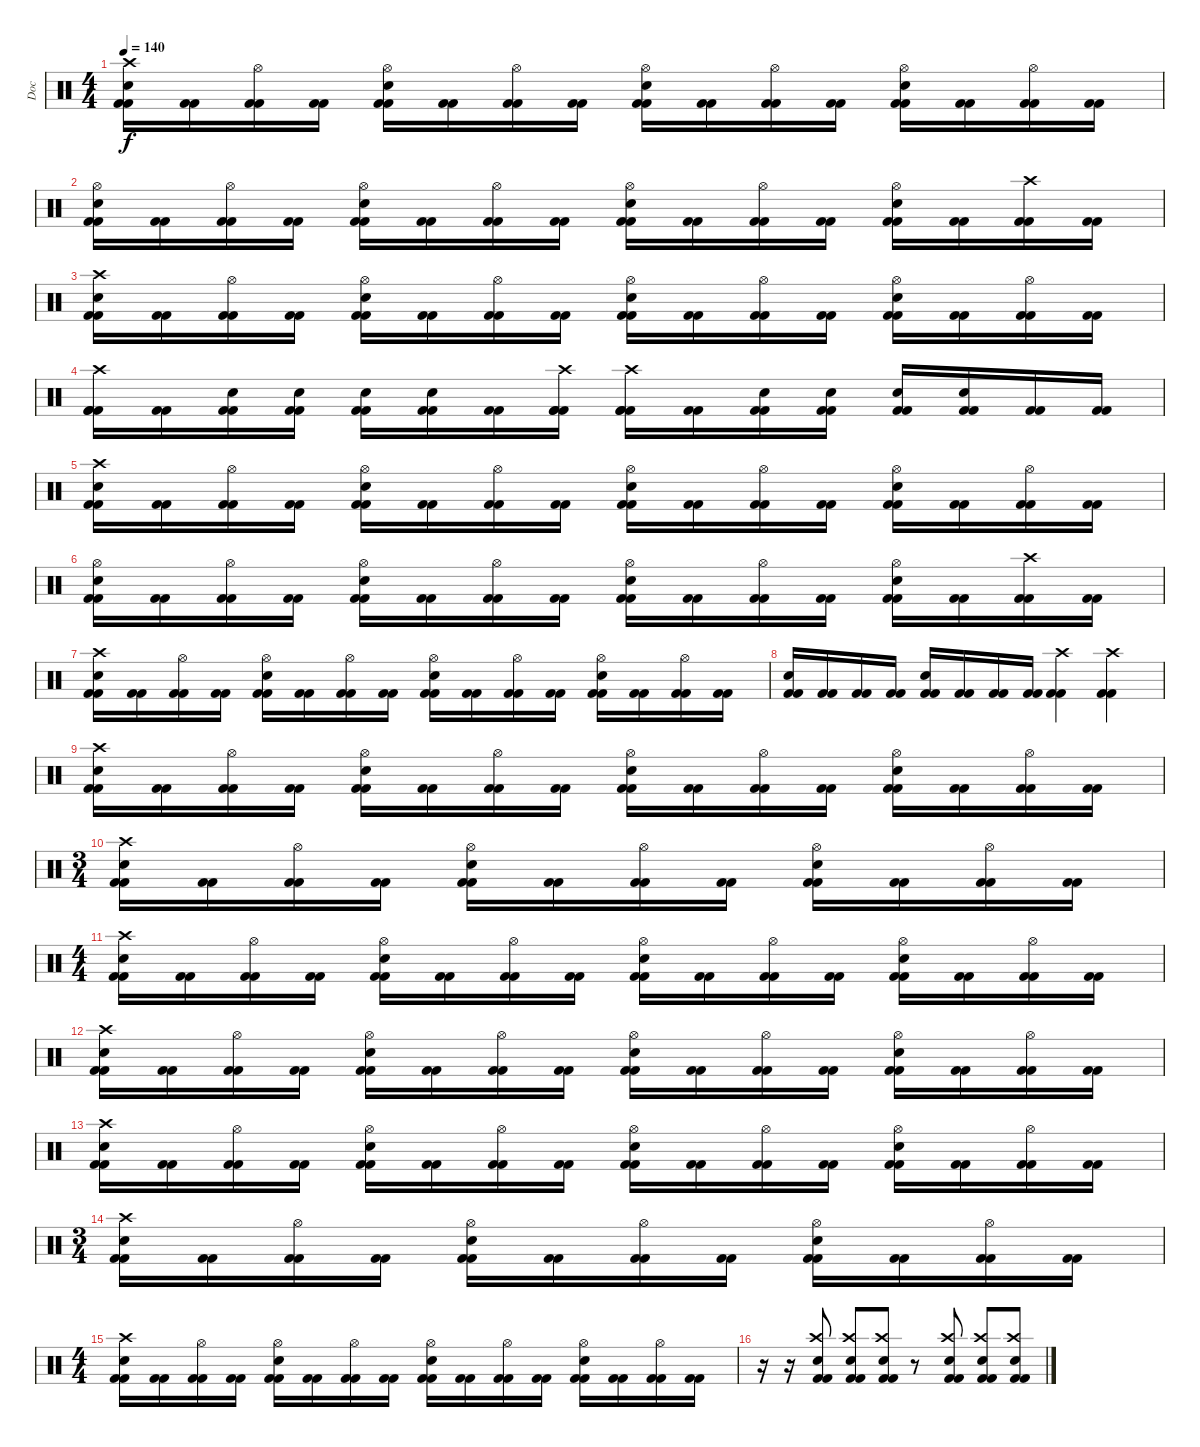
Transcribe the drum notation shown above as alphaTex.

\track ("Doc" "Doc") {instrument percussion}
\staff {score}
\articulation defaults
\ts (4 4)
\tempo 140
\clef neutral
\ks c
("Kick (hit) 2" "Crash high (hit)" "Electric Snare (hit)" "Kick (hit) 2").16{dy f} ("Kick (hit) 2" "Kick (hit) 2").16 ("Kick (hit) 2" "Hi-Hat (open)" "Kick (hit) 2").16 ("Kick (hit) 2" "Kick (hit) 2").16 ("Kick (hit) 2" "Hi-Hat (open)" "Electric Snare (hit)" "Kick (hit) 2").16 ("Kick (hit) 2" "Kick (hit) 2").16 ("Kick (hit) 2" "Hi-Hat (open)" "Kick (hit) 2").16 ("Kick (hit) 2" "Kick (hit) 2").16 ("Kick (hit) 2" "Hi-Hat (open)" "Electric Snare (hit)" "Kick (hit) 2").16 ("Kick (hit) 2" "Kick (hit) 2").16 ("Kick (hit) 2" "Hi-Hat (open)" "Kick (hit) 2").16 ("Kick (hit) 2" "Kick (hit) 2").16 ("Kick (hit) 2" "Hi-Hat (open)" "Electric Snare (hit)" "Kick (hit) 2").16 ("Kick (hit) 2" "Kick (hit) 2").16 ("Kick (hit) 2" "Hi-Hat (open)" "Kick (hit) 2").16 ("Kick (hit) 2" "Kick (hit) 2").16 |
("Kick (hit) 2" "Hi-Hat (open)" "Electric Snare (hit)" "Kick (hit) 2").16 ("Kick (hit) 2" "Kick (hit) 2").16 ("Kick (hit) 2" "Hi-Hat (open)" "Kick (hit) 2").16 ("Kick (hit) 2" "Kick (hit) 2").16 ("Kick (hit) 2" "Hi-Hat (open)" "Electric Snare (hit)" "Kick (hit) 2").16 ("Kick (hit) 2" "Kick (hit) 2").16 ("Kick (hit) 2" "Hi-Hat (open)" "Kick (hit) 2").16 ("Kick (hit) 2" "Kick (hit) 2").16 ("Kick (hit) 2" "Hi-Hat (open)" "Electric Snare (hit)" "Kick (hit) 2").16 ("Kick (hit) 2" "Kick (hit) 2").16 ("Kick (hit) 2" "Hi-Hat (open)" "Kick (hit) 2").16 ("Kick (hit) 2" "Kick (hit) 2").16 ("Kick (hit) 2" "Hi-Hat (open)" "Electric Snare (hit)" "Kick (hit) 2").16 ("Kick (hit) 2" "Kick (hit) 2").16 ("Kick (hit) 2" "Crash high (hit)" "Kick (hit) 2").16 ("Kick (hit) 2" "Kick (hit) 2").16 |
("Kick (hit) 2" "Crash high (hit)" "Electric Snare (hit)" "Kick (hit) 2").16 ("Kick (hit) 2" "Kick (hit) 2").16 ("Kick (hit) 2" "Hi-Hat (open)" "Kick (hit) 2").16 ("Kick (hit) 2" "Kick (hit) 2").16 ("Kick (hit) 2" "Hi-Hat (open)" "Electric Snare (hit)" "Kick (hit) 2").16 ("Kick (hit) 2" "Kick (hit) 2").16 ("Kick (hit) 2" "Hi-Hat (open)" "Kick (hit) 2").16 ("Kick (hit) 2" "Kick (hit) 2").16 ("Kick (hit) 2" "Hi-Hat (open)" "Electric Snare (hit)" "Kick (hit) 2").16 ("Kick (hit) 2" "Kick (hit) 2").16 ("Kick (hit) 2" "Hi-Hat (open)" "Kick (hit) 2").16 ("Kick (hit) 2" "Kick (hit) 2").16 ("Kick (hit) 2" "Hi-Hat (open)" "Electric Snare (hit)" "Kick (hit) 2").16 ("Kick (hit) 2" "Kick (hit) 2").16 ("Kick (hit) 2" "Hi-Hat (open)" "Kick (hit) 2").16 ("Kick (hit) 2" "Kick (hit) 2").16 |
("Kick (hit) 2" "Crash high (hit)" "Kick (hit) 2" "Kick (hit) 2").16 ("Kick (hit) 2" "Kick (hit) 2").16 ("Kick (hit) 2" "Electric Snare (hit)" "Kick (hit) 2").16 ("Kick (hit) 2" "Electric Snare (hit)" "Kick (hit) 2").16 ("Kick (hit) 2" "Electric Snare (hit)" "Kick (hit) 2").16 ("Kick (hit) 2" "Electric Snare (hit)" "Kick (hit) 2").16 ("Kick (hit) 2" "Kick (hit) 2").16 ("Kick (hit) 2" "Crash high (hit)" "Kick (hit) 2" "Kick (hit) 2").16 ("Kick (hit) 2" "Crash high (hit)" "Kick (hit) 2" "Kick (hit) 2").16 ("Kick (hit) 2" "Kick (hit) 2").16 ("Kick (hit) 2" "Electric Snare (hit)" "Kick (hit) 2").16 ("Kick (hit) 2" "Electric Snare (hit)" "Kick (hit) 2").16 ("Kick (hit) 2" "Electric Snare (hit)" "Kick (hit) 2").16 ("Kick (hit) 2" "Electric Snare (hit)" "Kick (hit) 2").16 ("Kick (hit) 2" "Kick (hit) 2").16 ("Kick (hit) 2" "Kick (hit) 2").16 |
("Kick (hit) 2" "Crash high (hit)" "Electric Snare (hit)" "Kick (hit) 2").16 ("Kick (hit) 2" "Kick (hit) 2").16 ("Kick (hit) 2" "Hi-Hat (open)" "Kick (hit) 2").16 ("Kick (hit) 2" "Kick (hit) 2").16 ("Kick (hit) 2" "Hi-Hat (open)" "Electric Snare (hit)" "Kick (hit) 2").16 ("Kick (hit) 2" "Kick (hit) 2").16 ("Kick (hit) 2" "Hi-Hat (open)" "Kick (hit) 2").16 ("Kick (hit) 2" "Kick (hit) 2").16 ("Kick (hit) 2" "Hi-Hat (open)" "Electric Snare (hit)" "Kick (hit) 2").16 ("Kick (hit) 2" "Kick (hit) 2").16 ("Kick (hit) 2" "Hi-Hat (open)" "Kick (hit) 2").16 ("Kick (hit) 2" "Kick (hit) 2").16 ("Kick (hit) 2" "Hi-Hat (open)" "Electric Snare (hit)" "Kick (hit) 2").16 ("Kick (hit) 2" "Kick (hit) 2").16 ("Kick (hit) 2" "Hi-Hat (open)" "Kick (hit) 2").16 ("Kick (hit) 2" "Kick (hit) 2").16 |
("Kick (hit) 2" "Hi-Hat (open)" "Electric Snare (hit)" "Kick (hit) 2").16 ("Kick (hit) 2" "Kick (hit) 2").16 ("Kick (hit) 2" "Hi-Hat (open)" "Kick (hit) 2").16 ("Kick (hit) 2" "Kick (hit) 2").16 ("Kick (hit) 2" "Hi-Hat (open)" "Electric Snare (hit)" "Kick (hit) 2").16 ("Kick (hit) 2" "Kick (hit) 2").16 ("Kick (hit) 2" "Hi-Hat (open)" "Kick (hit) 2").16 ("Kick (hit) 2" "Kick (hit) 2").16 ("Kick (hit) 2" "Hi-Hat (open)" "Electric Snare (hit)" "Kick (hit) 2").16 ("Kick (hit) 2" "Kick (hit) 2").16 ("Kick (hit) 2" "Hi-Hat (open)" "Kick (hit) 2").16 ("Kick (hit) 2" "Kick (hit) 2").16 ("Kick (hit) 2" "Hi-Hat (open)" "Electric Snare (hit)" "Kick (hit) 2").16 ("Kick (hit) 2" "Kick (hit) 2").16 ("Kick (hit) 2" "Crash high (hit)" "Kick (hit) 2").16 ("Kick (hit) 2" "Kick (hit) 2").16 |
("Kick (hit) 2" "Crash high (hit)" "Electric Snare (hit)" "Kick (hit) 2").16 ("Kick (hit) 2" "Kick (hit) 2").16 ("Kick (hit) 2" "Hi-Hat (open)" "Kick (hit) 2").16 ("Kick (hit) 2" "Kick (hit) 2").16 ("Kick (hit) 2" "Hi-Hat (open)" "Electric Snare (hit)" "Kick (hit) 2").16 ("Kick (hit) 2" "Kick (hit) 2").16 ("Kick (hit) 2" "Hi-Hat (open)" "Kick (hit) 2").16 ("Kick (hit) 2" "Kick (hit) 2").16 ("Kick (hit) 2" "Hi-Hat (open)" "Electric Snare (hit)" "Kick (hit) 2").16 ("Kick (hit) 2" "Kick (hit) 2").16 ("Kick (hit) 2" "Hi-Hat (open)" "Kick (hit) 2").16 ("Kick (hit) 2" "Kick (hit) 2").16 ("Kick (hit) 2" "Hi-Hat (open)" "Electric Snare (hit)" "Kick (hit) 2").16 ("Kick (hit) 2" "Kick (hit) 2").16 ("Kick (hit) 2" "Hi-Hat (open)" "Kick (hit) 2").16 ("Kick (hit) 2" "Kick (hit) 2").16 |
("Kick (hit) 2" "Electric Snare (hit)" "Kick (hit) 2").16 ("Kick (hit) 2" "Kick (hit) 2").16 ("Kick (hit) 2" "Kick (hit) 2").16 ("Kick (hit) 2" "Kick (hit) 2").16 ("Kick (hit) 2" "Electric Snare (hit)" "Kick (hit) 2").16 ("Kick (hit) 2" "Kick (hit) 2").16 ("Kick (hit) 2" "Kick (hit) 2").16 ("Kick (hit) 2" "Kick (hit) 2").16 ("Crash high (hit)" "Kick (hit) 2" "Kick (hit) 2").4 ("Crash high (hit)" "Kick (hit) 2" "Kick (hit) 2").4 |
("Kick (hit) 2" "Crash high (hit)" "Electric Snare (hit)" "Kick (hit) 2").16 ("Kick (hit) 2" "Kick (hit) 2").16 ("Kick (hit) 2" "Hi-Hat (open)" "Kick (hit) 2").16 ("Kick (hit) 2" "Kick (hit) 2").16 ("Kick (hit) 2" "Hi-Hat (open)" "Electric Snare (hit)" "Kick (hit) 2").16 ("Kick (hit) 2" "Kick (hit) 2").16 ("Kick (hit) 2" "Hi-Hat (open)" "Kick (hit) 2").16 ("Kick (hit) 2" "Kick (hit) 2").16 ("Kick (hit) 2" "Hi-Hat (open)" "Electric Snare (hit)" "Kick (hit) 2").16 ("Kick (hit) 2" "Kick (hit) 2").16 ("Kick (hit) 2" "Hi-Hat (open)" "Kick (hit) 2").16 ("Kick (hit) 2" "Kick (hit) 2").16 ("Kick (hit) 2" "Hi-Hat (open)" "Electric Snare (hit)" "Kick (hit) 2").16 ("Kick (hit) 2" "Kick (hit) 2").16 ("Kick (hit) 2" "Hi-Hat (open)" "Kick (hit) 2").16 ("Kick (hit) 2" "Kick (hit) 2").16 |
\ts (3 4)
("Kick (hit) 2" "Crash high (hit)" "Electric Snare (hit)" "Kick (hit) 2").16 ("Kick (hit) 2" "Kick (hit) 2").16 ("Kick (hit) 2" "Hi-Hat (open)" "Kick (hit) 2").16 ("Kick (hit) 2" "Kick (hit) 2").16 ("Kick (hit) 2" "Hi-Hat (open)" "Electric Snare (hit)" "Kick (hit) 2").16 ("Kick (hit) 2" "Kick (hit) 2").16 ("Kick (hit) 2" "Hi-Hat (open)" "Kick (hit) 2").16 ("Kick (hit) 2" "Kick (hit) 2").16 ("Kick (hit) 2" "Hi-Hat (open)" "Electric Snare (hit)" "Kick (hit) 2").16 ("Kick (hit) 2" "Kick (hit) 2").16 ("Kick (hit) 2" "Hi-Hat (open)" "Kick (hit) 2").16 ("Kick (hit) 2" "Kick (hit) 2").16 |
\ts (4 4)
("Kick (hit) 2" "Crash high (hit)" "Electric Snare (hit)" "Kick (hit) 2").16 ("Kick (hit) 2" "Kick (hit) 2").16 ("Kick (hit) 2" "Hi-Hat (open)" "Kick (hit) 2").16 ("Kick (hit) 2" "Kick (hit) 2").16 ("Kick (hit) 2" "Hi-Hat (open)" "Electric Snare (hit)" "Kick (hit) 2").16 ("Kick (hit) 2" "Kick (hit) 2").16 ("Kick (hit) 2" "Hi-Hat (open)" "Kick (hit) 2").16 ("Kick (hit) 2" "Kick (hit) 2").16 ("Kick (hit) 2" "Hi-Hat (open)" "Electric Snare (hit)" "Kick (hit) 2").16 ("Kick (hit) 2" "Kick (hit) 2").16 ("Kick (hit) 2" "Hi-Hat (open)" "Kick (hit) 2").16 ("Kick (hit) 2" "Kick (hit) 2").16 ("Kick (hit) 2" "Hi-Hat (open)" "Electric Snare (hit)" "Kick (hit) 2").16 ("Kick (hit) 2" "Kick (hit) 2").16 ("Kick (hit) 2" "Hi-Hat (open)" "Kick (hit) 2").16 ("Kick (hit) 2" "Kick (hit) 2").16 |
("Kick (hit) 2" "Crash high (hit)" "Electric Snare (hit)" "Kick (hit) 2").16 ("Kick (hit) 2" "Kick (hit) 2").16 ("Kick (hit) 2" "Hi-Hat (open)" "Kick (hit) 2").16 ("Kick (hit) 2" "Kick (hit) 2").16 ("Kick (hit) 2" "Hi-Hat (open)" "Electric Snare (hit)" "Kick (hit) 2").16 ("Kick (hit) 2" "Kick (hit) 2").16 ("Kick (hit) 2" "Hi-Hat (open)" "Kick (hit) 2").16 ("Kick (hit) 2" "Kick (hit) 2").16 ("Kick (hit) 2" "Hi-Hat (open)" "Electric Snare (hit)" "Kick (hit) 2").16 ("Kick (hit) 2" "Kick (hit) 2").16 ("Kick (hit) 2" "Hi-Hat (open)" "Kick (hit) 2").16 ("Kick (hit) 2" "Kick (hit) 2").16 ("Kick (hit) 2" "Hi-Hat (open)" "Electric Snare (hit)" "Kick (hit) 2").16 ("Kick (hit) 2" "Kick (hit) 2").16 ("Kick (hit) 2" "Hi-Hat (open)" "Kick (hit) 2").16 ("Kick (hit) 2" "Kick (hit) 2").16 |
("Kick (hit) 2" "Crash high (hit)" "Electric Snare (hit)" "Kick (hit) 2").16 ("Kick (hit) 2" "Kick (hit) 2").16 ("Kick (hit) 2" "Hi-Hat (open)" "Kick (hit) 2").16 ("Kick (hit) 2" "Kick (hit) 2").16 ("Kick (hit) 2" "Hi-Hat (open)" "Electric Snare (hit)" "Kick (hit) 2").16 ("Kick (hit) 2" "Kick (hit) 2").16 ("Kick (hit) 2" "Hi-Hat (open)" "Kick (hit) 2").16 ("Kick (hit) 2" "Kick (hit) 2").16 ("Kick (hit) 2" "Hi-Hat (open)" "Electric Snare (hit)" "Kick (hit) 2").16 ("Kick (hit) 2" "Kick (hit) 2").16 ("Kick (hit) 2" "Hi-Hat (open)" "Kick (hit) 2").16 ("Kick (hit) 2" "Kick (hit) 2").16 ("Kick (hit) 2" "Hi-Hat (open)" "Electric Snare (hit)" "Kick (hit) 2").16 ("Kick (hit) 2" "Kick (hit) 2").16 ("Kick (hit) 2" "Hi-Hat (open)" "Kick (hit) 2").16 ("Kick (hit) 2" "Kick (hit) 2").16 |
\ts (3 4)
("Kick (hit) 2" "Crash high (hit)" "Electric Snare (hit)" "Kick (hit) 2").16 ("Kick (hit) 2" "Kick (hit) 2").16 ("Kick (hit) 2" "Hi-Hat (open)" "Kick (hit) 2").16 ("Kick (hit) 2" "Kick (hit) 2").16 ("Kick (hit) 2" "Hi-Hat (open)" "Electric Snare (hit)" "Kick (hit) 2").16 ("Kick (hit) 2" "Kick (hit) 2").16 ("Kick (hit) 2" "Hi-Hat (open)" "Kick (hit) 2").16 ("Kick (hit) 2" "Kick (hit) 2").16 ("Kick (hit) 2" "Hi-Hat (open)" "Electric Snare (hit)" "Kick (hit) 2").16 ("Kick (hit) 2" "Kick (hit) 2").16 ("Kick (hit) 2" "Hi-Hat (open)" "Kick (hit) 2").16 ("Kick (hit) 2" "Kick (hit) 2").16 |
\ts (4 4)
("Kick (hit) 2" "Crash high (hit)" "Electric Snare (hit)" "Kick (hit) 2").16 ("Kick (hit) 2" "Kick (hit) 2").16 ("Kick (hit) 2" "Hi-Hat (open)" "Kick (hit) 2").16 ("Kick (hit) 2" "Kick (hit) 2").16 ("Kick (hit) 2" "Hi-Hat (open)" "Electric Snare (hit)" "Kick (hit) 2").16 ("Kick (hit) 2" "Kick (hit) 2").16 ("Kick (hit) 2" "Hi-Hat (open)" "Kick (hit) 2").16 ("Kick (hit) 2" "Kick (hit) 2").16 ("Kick (hit) 2" "Hi-Hat (open)" "Electric Snare (hit)" "Kick (hit) 2").16 ("Kick (hit) 2" "Kick (hit) 2").16 ("Kick (hit) 2" "Hi-Hat (open)" "Kick (hit) 2").16 ("Kick (hit) 2" "Kick (hit) 2").16 ("Kick (hit) 2" "Hi-Hat (open)" "Electric Snare (hit)" "Kick (hit) 2").16 ("Kick (hit) 2" "Kick (hit) 2").16 ("Kick (hit) 2" "Hi-Hat (open)" "Kick (hit) 2").16 ("Kick (hit) 2" "Kick (hit) 2").16 |
r.16 r.16 ("Crash high (hit)" "Electric Snare (hit)" "Kick (hit) 2" "Kick (hit) 2").8 ("Crash high (hit)" "Electric Snare (hit)" "Kick (hit) 2" "Kick (hit) 2").8 ("Crash high (hit)" "Electric Snare (hit)" "Kick (hit) 2" "Kick (hit) 2").8 r.8 ("Crash high (hit)" "Electric Snare (hit)" "Kick (hit) 2" "Kick (hit) 2").8 ("Crash high (hit)" "Electric Snare (hit)" "Kick (hit) 2" "Kick (hit) 2").8 ("Crash high (hit)" "Electric Snare (hit)" "Kick (hit) 2" "Kick (hit) 2").8
